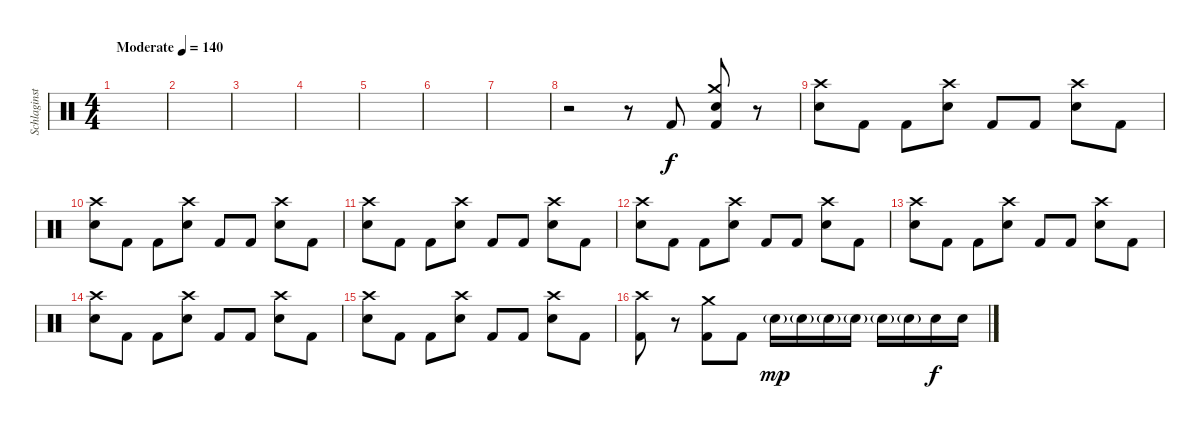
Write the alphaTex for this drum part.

\track ("Schlaginstrumente - Auswahl" "Schlaginst") {instrument percussion}
\staff {score}
\articulation defaults
\ts (4 4)
\tempo (140 "Moderate")
\clef neutral
\ks c
|
|
|
|
|
|
|
r.2 r.8 "Kick (hit) 2".8 ("Crash medium (hit)" "Snare (hit) 2" "Kick (hit) 2").8 r.8 |
("Crash high (hit)" "Snare (hit) 2").8 "Kick (hit) 2".8 "Kick (hit) 2".8 ("Crash high (hit)" "Snare (hit) 2").8 "Kick (hit) 2".8 "Kick (hit) 2".8 ("Crash high (hit)" "Snare (hit) 2").8 "Kick (hit) 2".8 |
("Crash high (hit)" "Snare (hit) 2").8 "Kick (hit) 2".8 "Kick (hit) 2".8 ("Crash high (hit)" "Snare (hit) 2").8 "Kick (hit) 2".8 "Kick (hit) 2".8 ("Crash high (hit)" "Snare (hit) 2").8 "Kick (hit) 2".8 |
("Crash high (hit)" "Snare (hit) 2").8 "Kick (hit) 2".8 "Kick (hit) 2".8 ("Crash high (hit)" "Snare (hit) 2").8 "Kick (hit) 2".8 "Kick (hit) 2".8 ("Crash high (hit)" "Snare (hit) 2").8 "Kick (hit) 2".8 |
("Crash high (hit)" "Snare (hit) 2").8 "Kick (hit) 2".8 "Kick (hit) 2".8 ("Crash high (hit)" "Snare (hit) 2").8 "Kick (hit) 2".8 "Kick (hit) 2".8 ("Crash high (hit)" "Snare (hit) 2").8 "Kick (hit) 2".8 |
("Crash high (hit)" "Snare (hit) 2").8 "Kick (hit) 2".8 "Kick (hit) 2".8 ("Crash high (hit)" "Snare (hit) 2").8 "Kick (hit) 2".8 "Kick (hit) 2".8 ("Crash high (hit)" "Snare (hit) 2").8 "Kick (hit) 2".8 |
("Crash high (hit)" "Snare (hit) 2").8 "Kick (hit) 2".8 "Kick (hit) 2".8 ("Crash high (hit)" "Snare (hit) 2").8 "Kick (hit) 2".8 "Kick (hit) 2".8 ("Crash high (hit)" "Snare (hit) 2").8 "Kick (hit) 2".8 |
("Crash high (hit)" "Snare (hit) 2").8 "Kick (hit) 2".8 "Kick (hit) 2".8 ("Crash high (hit)" "Snare (hit) 2").8 "Kick (hit) 2".8 "Kick (hit) 2".8 ("Crash high (hit)" "Snare (hit) 2").8 "Kick (hit) 2".8 |
("Crash high (hit)" "Kick (hit) 2").8 r.8 ("Crash medium (hit)" "Kick (hit) 2").8 "Kick (hit) 2".8 "Snare (hit) 2"{g}.16{dy mp} "Snare (hit) 2"{g}.16 "Snare (hit) 2"{g}.16 "Snare (hit) 2"{g}.16 "Snare (hit) 2"{g}.16 "Snare (hit) 2"{g}.16 "Snare (hit) 2".16{dy f} "Snare (hit) 2".16
